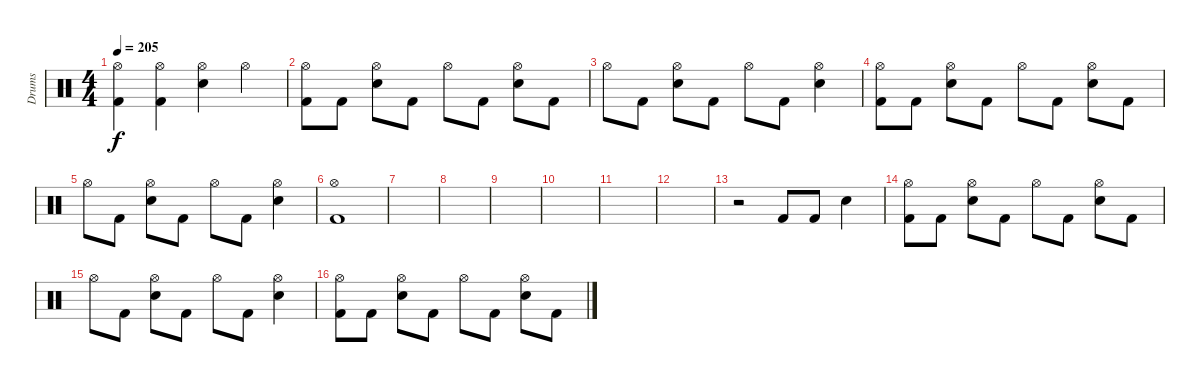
\track ("Drums" "Drums") {instrument percussion}
\staff {score}
\articulation defaults
\ts (4 4)
\tempo 205
\clef neutral
\ks c
("Hi-Hat (open)" "Kick (hit) 2").4{dy f} ("Hi-Hat (open)" "Kick (hit) 2").4 ("Hi-Hat (open)" "Snare (hit) 2").4 "Hi-Hat (open)".4 |
("Hi-Hat (open)" "Kick (hit) 2").8 "Kick (hit) 2".8 ("Hi-Hat (open)" "Snare (hit) 2").8 "Kick (hit) 2".8 "Hi-Hat (open)".8 "Kick (hit) 2".8 ("Hi-Hat (open)" "Snare (hit) 2").8 "Kick (hit) 2".8 |
"Hi-Hat (open)".8 "Kick (hit) 2".8 ("Hi-Hat (open)" "Snare (hit) 2").8 "Kick (hit) 2".8 "Hi-Hat (open)".8 "Kick (hit) 2".8 ("Hi-Hat (open)" "Snare (hit) 2").4 |
("Hi-Hat (open)" "Kick (hit) 2").8 "Kick (hit) 2".8 ("Hi-Hat (open)" "Snare (hit) 2").8 "Kick (hit) 2".8 "Hi-Hat (open)".8 "Kick (hit) 2".8 ("Hi-Hat (open)" "Snare (hit) 2").8 "Kick (hit) 2".8 |
"Hi-Hat (open)".8 "Kick (hit) 2".8 ("Hi-Hat (open)" "Snare (hit) 2").8 "Kick (hit) 2".8 "Hi-Hat (open)".8 "Kick (hit) 2".8 ("Hi-Hat (open)" "Snare (hit) 2").4 |
("Hi-Hat (open)" "Kick (hit) 2").1 |
|
|
|
|
|
|
r.2 "Kick (hit) 2".8 "Kick (hit) 2".8 "Snare (hit) 2".4 |
("Hi-Hat (open)" "Kick (hit) 2").8 "Kick (hit) 2".8 ("Hi-Hat (open)" "Snare (hit) 2").8 "Kick (hit) 2".8 "Hi-Hat (open)".8 "Kick (hit) 2".8 ("Hi-Hat (open)" "Snare (hit) 2").8 "Kick (hit) 2".8 |
"Hi-Hat (open)".8 "Kick (hit) 2".8 ("Hi-Hat (open)" "Snare (hit) 2").8 "Kick (hit) 2".8 "Hi-Hat (open)".8 "Kick (hit) 2".8 ("Hi-Hat (open)" "Snare (hit) 2").4 |
("Hi-Hat (open)" "Kick (hit) 2").8 "Kick (hit) 2".8 ("Hi-Hat (open)" "Snare (hit) 2").8 "Kick (hit) 2".8 "Hi-Hat (open)".8 "Kick (hit) 2".8 ("Hi-Hat (open)" "Snare (hit) 2").8 "Kick (hit) 2".8
